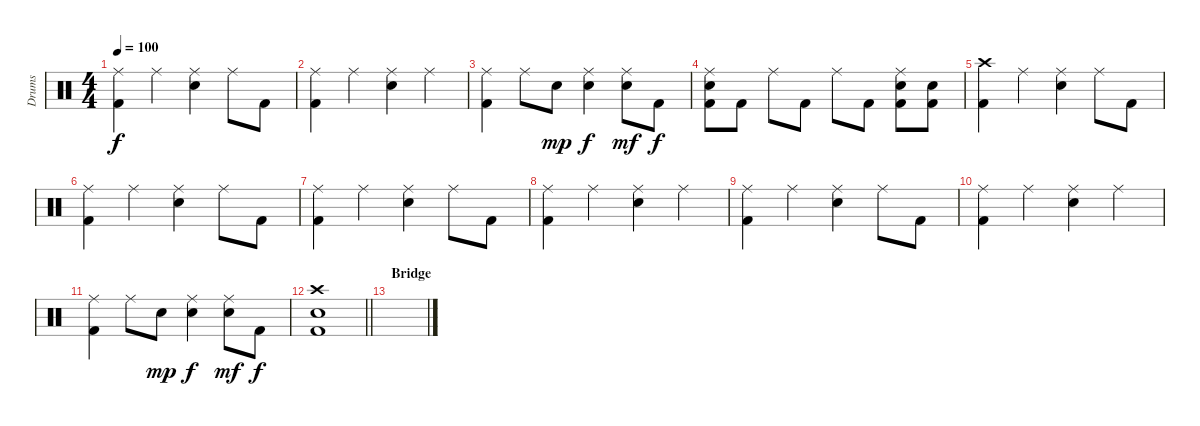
\track ("Drums" "Drums") {instrument percussion}
\staff {score}
\articulation defaults
\ts (4 4)
\tempo 100
\clef neutral
\ks c
("Ride (middle)" "Kick (hit) 2").4{dy f} "Ride (middle)".4 ("Ride (middle)" "Electric Snare (hit)").4 "Ride (middle)".8 "Kick (hit) 2".8 |
("Ride (middle)" "Kick (hit) 2").4 "Ride (middle)".4 ("Ride (middle)" "Electric Snare (hit)").4 "Ride (middle)".4 |
("Ride (middle)" "Kick (hit) 2").4 "Ride (middle)".8 "Electric Snare (hit)".8{dy mp} ("Ride (middle)" "Electric Snare (hit)").4{dy f} ("Ride (middle)" "Electric Snare (hit)").8{dy mf} "Kick (hit) 2".8{dy f} |
("Ride (middle)" "Electric Snare (hit)" "Kick (hit) 2").8 "Kick (hit) 2".8 "Ride (middle)".8 "Kick (hit) 2".8 "Ride (middle)".8 "Kick (hit) 2".8 ("Ride (middle)" "Electric Snare (hit)" "Kick (hit) 2").8 ("Electric Snare (hit)" "Kick (hit) 2").8 |
("Crash high (hit)" "Kick (hit) 2").4 "Ride (middle)".4 ("Ride (middle)" "Electric Snare (hit)").4 "Ride (middle)".8 "Kick (hit) 2".8 |
("Ride (middle)" "Kick (hit) 2").4 "Ride (middle)".4 ("Ride (middle)" "Electric Snare (hit)").4 "Ride (middle)".8 "Kick (hit) 2".8 |
("Ride (middle)" "Kick (hit) 2").4 "Ride (middle)".4 ("Ride (middle)" "Electric Snare (hit)").4 "Ride (middle)".8 "Kick (hit) 2".8 |
("Ride (middle)" "Kick (hit) 2").4 "Ride (middle)".4 ("Ride (middle)" "Electric Snare (hit)").4 "Ride (middle)".4 |
("Ride (middle)" "Kick (hit) 2").4 "Ride (middle)".4 ("Ride (middle)" "Electric Snare (hit)").4 "Ride (middle)".8 "Kick (hit) 2".8 |
("Ride (middle)" "Kick (hit) 2").4 "Ride (middle)".4 ("Ride (middle)" "Electric Snare (hit)").4 "Ride (middle)".4 |
("Ride (middle)" "Kick (hit) 2").4 "Ride (middle)".8 "Electric Snare (hit)".8{dy mp} ("Ride (middle)" "Electric Snare (hit)").4{dy f} ("Ride (middle)" "Electric Snare (hit)").8{dy mf} "Kick (hit) 2".8{dy f} |
\barLineRight lightlight
("Crash high (hit)" "Electric Snare (hit)" "Kick (hit) 2").1 |
\section ("" "Bridge")
